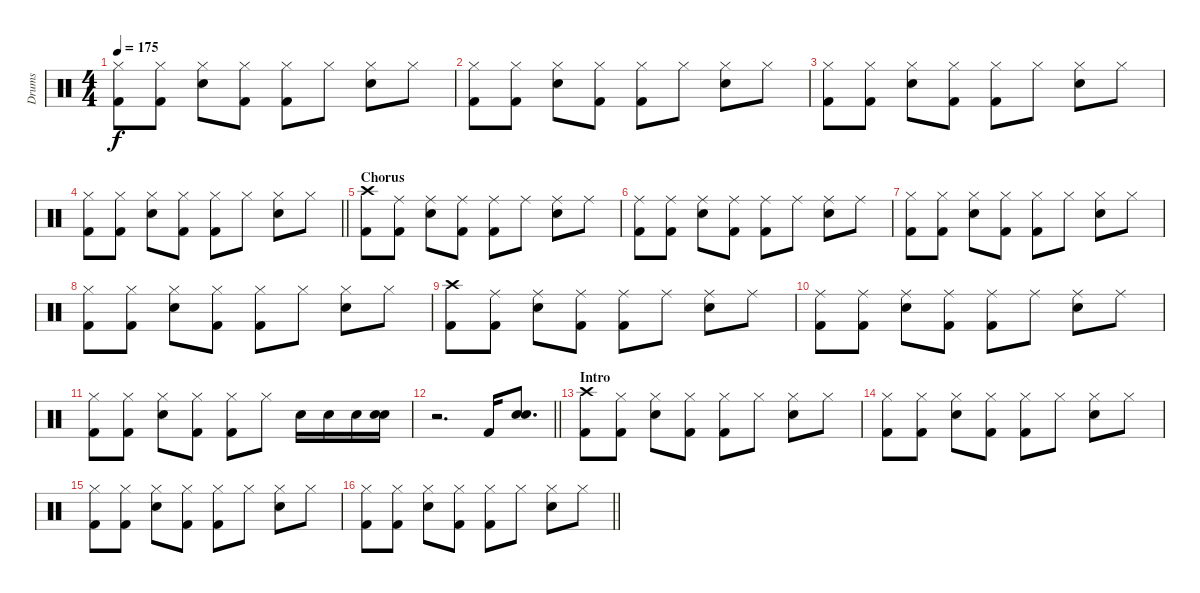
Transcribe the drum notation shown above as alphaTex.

\track ("Drums" "Drums") {instrument percussion}
\staff {score}
\articulation defaults
\ts (4 4)
\tempo 175
\clef neutral
\ks c
("Hi-Hat (closed)" "Kick (hit) 2").8{dy f} ("Hi-Hat (closed)" "Kick (hit) 2").8 ("Hi-Hat (closed)" "Snare (hit) 2").8 ("Hi-Hat (closed)" "Kick (hit) 2").8 ("Hi-Hat (closed)" "Kick (hit) 2").8 "Hi-Hat (closed)".8 ("Hi-Hat (closed)" "Snare (hit) 2").8 "Hi-Hat (closed)".8 |
("Hi-Hat (closed)" "Kick (hit) 2").8 ("Hi-Hat (closed)" "Kick (hit) 2").8 ("Hi-Hat (closed)" "Snare (hit) 2").8 ("Hi-Hat (closed)" "Kick (hit) 2").8 ("Hi-Hat (closed)" "Kick (hit) 2").8 "Hi-Hat (closed)".8 ("Hi-Hat (closed)" "Snare (hit) 2").8 "Hi-Hat (closed)".8 |
("Hi-Hat (closed)" "Kick (hit) 2").8 ("Hi-Hat (closed)" "Kick (hit) 2").8 ("Hi-Hat (closed)" "Snare (hit) 2").8 ("Hi-Hat (closed)" "Kick (hit) 2").8 ("Hi-Hat (closed)" "Kick (hit) 2").8 "Hi-Hat (closed)".8 ("Hi-Hat (closed)" "Snare (hit) 2").8 "Hi-Hat (closed)".8 |
\barLineRight lightlight
("Hi-Hat (closed)" "Kick (hit) 2").8 ("Hi-Hat (closed)" "Kick (hit) 2").8 ("Hi-Hat (closed)" "Snare (hit) 2").8 ("Hi-Hat (closed)" "Kick (hit) 2").8 ("Hi-Hat (closed)" "Kick (hit) 2").8 "Hi-Hat (closed)".8 ("Hi-Hat (closed)" "Snare (hit) 2").8 "Hi-Hat (closed)".8 |
\section ("" "Chorus")
("Crash high (hit)" "Kick (hit) 2").8 ("Ride (middle)" "Kick (hit) 2").8 ("Ride (middle)" "Snare (hit) 2").8 ("Ride (middle)" "Kick (hit) 2").8 ("Ride (middle)" "Kick (hit) 2").8 "Ride (middle)".8 ("Ride (middle)" "Snare (hit) 2").8 "Ride (middle)".8 |
("Ride (middle)" "Kick (hit) 2").8 ("Ride (middle)" "Kick (hit) 2").8 ("Ride (middle)" "Snare (hit) 2").8 ("Ride (middle)" "Kick (hit) 2").8 ("Ride (middle)" "Kick (hit) 2").8 "Ride (middle)".8 ("Ride (middle)" "Snare (hit) 2").8 "Ride (middle)".8 |
("Hi-Hat (closed)" "Kick (hit) 2").8 ("Hi-Hat (closed)" "Kick (hit) 2").8 ("Hi-Hat (closed)" "Snare (hit) 2").8 ("Hi-Hat (closed)" "Kick (hit) 2").8 ("Hi-Hat (closed)" "Kick (hit) 2").8 "Hi-Hat (closed)".8 ("Hi-Hat (closed)" "Snare (hit) 2").8 "Hi-Hat (closed)".8 |
("Hi-Hat (closed)" "Kick (hit) 2").8 ("Hi-Hat (closed)" "Kick (hit) 2").8 ("Hi-Hat (closed)" "Snare (hit) 2").8 ("Hi-Hat (closed)" "Kick (hit) 2").8 ("Hi-Hat (closed)" "Kick (hit) 2").8 "Hi-Hat (closed)".8 ("Hi-Hat (closed)" "Snare (hit) 2").8 "Hi-Hat (closed)".8 |
("Crash high (hit)" "Kick (hit) 2").8 ("Ride (middle)" "Kick (hit) 2").8 ("Ride (middle)" "Snare (hit) 2").8 ("Ride (middle)" "Kick (hit) 2").8 ("Ride (middle)" "Kick (hit) 2").8 "Ride (middle)".8 ("Ride (middle)" "Snare (hit) 2").8 "Ride (middle)".8 |
("Ride (middle)" "Kick (hit) 2").8 ("Ride (middle)" "Kick (hit) 2").8 ("Ride (middle)" "Snare (hit) 2").8 ("Ride (middle)" "Kick (hit) 2").8 ("Ride (middle)" "Kick (hit) 2").8 "Ride (middle)".8 ("Ride (middle)" "Snare (hit) 2").8 "Ride (middle)".8 |
("Hi-Hat (closed)" "Kick (hit) 2").8 ("Hi-Hat (closed)" "Kick (hit) 2").8 ("Hi-Hat (closed)" "Snare (hit) 2").8 ("Hi-Hat (closed)" "Kick (hit) 2").8 ("Hi-Hat (closed)" "Kick (hit) 2").8 "Hi-Hat (closed)".8 "Snare (hit) 2".16 "Snare (hit) 2".16 "Snare (hit) 2".16 ("Snare (hit) 2" "Snare (hit) 2").16 |
\barLineRight lightlight
r.2{d} "Kick (hit) 2".16 ("Snare (hit) 2" "Snare (hit) 2").8{d} |
\section ("" "Intro")
("Crash high (hit)" "Kick (hit) 2").8 ("Hi-Hat (closed)" "Kick (hit) 2").8 ("Hi-Hat (closed)" "Snare (hit) 2").8 ("Hi-Hat (closed)" "Kick (hit) 2").8 ("Hi-Hat (closed)" "Kick (hit) 2").8 "Hi-Hat (closed)".8 ("Hi-Hat (closed)" "Snare (hit) 2").8 "Hi-Hat (closed)".8 |
("Hi-Hat (closed)" "Kick (hit) 2").8 ("Hi-Hat (closed)" "Kick (hit) 2").8 ("Hi-Hat (closed)" "Snare (hit) 2").8 ("Hi-Hat (closed)" "Kick (hit) 2").8 ("Hi-Hat (closed)" "Kick (hit) 2").8 "Hi-Hat (closed)".8 ("Hi-Hat (closed)" "Snare (hit) 2").8 "Hi-Hat (closed)".8 |
("Hi-Hat (closed)" "Kick (hit) 2").8 ("Hi-Hat (closed)" "Kick (hit) 2").8 ("Hi-Hat (closed)" "Snare (hit) 2").8 ("Hi-Hat (closed)" "Kick (hit) 2").8 ("Hi-Hat (closed)" "Kick (hit) 2").8 "Hi-Hat (closed)".8 ("Hi-Hat (closed)" "Snare (hit) 2").8 "Hi-Hat (closed)".8 |
\barLineRight lightlight
("Hi-Hat (closed)" "Kick (hit) 2").8 ("Hi-Hat (closed)" "Kick (hit) 2").8 ("Hi-Hat (closed)" "Snare (hit) 2").8 ("Hi-Hat (closed)" "Kick (hit) 2").8 ("Hi-Hat (closed)" "Kick (hit) 2").8 "Hi-Hat (closed)".8 ("Hi-Hat (closed)" "Snare (hit) 2").8 "Hi-Hat (closed)".8
